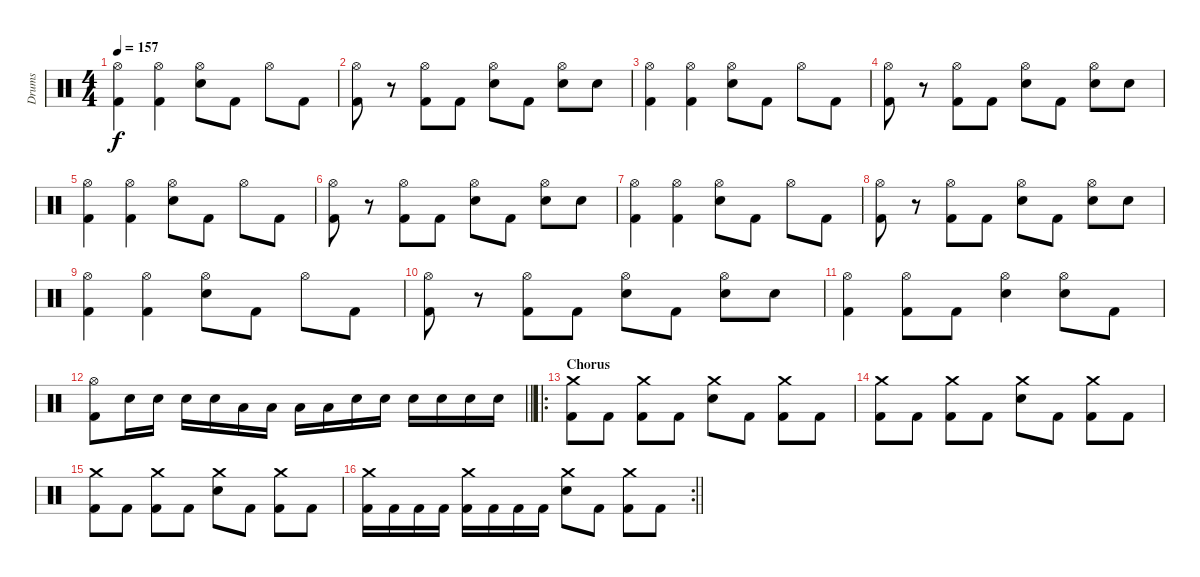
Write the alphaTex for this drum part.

\track ("Drums" "Drums") {instrument percussion}
\staff {score}
\articulation defaults
\ts (4 4)
\tempo 157
\clef neutral
\ks c
("Hi-Hat (open)" "Kick (hit) 2").4{dy f} ("Hi-Hat (open)" "Kick (hit) 2").4 ("Hi-Hat (open)" "Electric Snare (hit)").8 "Kick (hit) 2".8 "Hi-Hat (open)".8 "Kick (hit) 2".8 |
("Hi-Hat (open)" "Kick (hit) 2").8 r.8 ("Hi-Hat (open)" "Kick (hit) 2").8 "Kick (hit) 2".8 ("Hi-Hat (open)" "Electric Snare (hit)").8 "Kick (hit) 2".8 ("Hi-Hat (open)" "Electric Snare (hit)").8 "Electric Snare (hit)".8 |
("Hi-Hat (open)" "Kick (hit) 2").4 ("Hi-Hat (open)" "Kick (hit) 2").4 ("Hi-Hat (open)" "Electric Snare (hit)").8 "Kick (hit) 2".8 "Hi-Hat (open)".8 "Kick (hit) 2".8 |
("Hi-Hat (open)" "Kick (hit) 2").8 r.8 ("Hi-Hat (open)" "Kick (hit) 2").8 "Kick (hit) 2".8 ("Hi-Hat (open)" "Electric Snare (hit)").8 "Kick (hit) 2".8 ("Hi-Hat (open)" "Electric Snare (hit)").8 "Electric Snare (hit)".8 |
("Hi-Hat (open)" "Kick (hit) 2").4 ("Hi-Hat (open)" "Kick (hit) 2").4 ("Hi-Hat (open)" "Electric Snare (hit)").8 "Kick (hit) 2".8 "Hi-Hat (open)".8 "Kick (hit) 2".8 |
("Hi-Hat (open)" "Kick (hit) 2").8 r.8 ("Hi-Hat (open)" "Kick (hit) 2").8 "Kick (hit) 2".8 ("Hi-Hat (open)" "Electric Snare (hit)").8 "Kick (hit) 2".8 ("Hi-Hat (open)" "Electric Snare (hit)").8 "Electric Snare (hit)".8 |
("Hi-Hat (open)" "Kick (hit) 2").4 ("Hi-Hat (open)" "Kick (hit) 2").4 ("Hi-Hat (open)" "Electric Snare (hit)").8 "Kick (hit) 2".8 "Hi-Hat (open)".8 "Kick (hit) 2".8 |
("Hi-Hat (open)" "Kick (hit) 2").8 r.8 ("Hi-Hat (open)" "Kick (hit) 2").8 "Kick (hit) 2".8 ("Hi-Hat (open)" "Electric Snare (hit)").8 "Kick (hit) 2".8 ("Hi-Hat (open)" "Electric Snare (hit)").8 "Electric Snare (hit)".8 |
("Hi-Hat (open)" "Kick (hit) 2").4 ("Hi-Hat (open)" "Kick (hit) 2").4 ("Hi-Hat (open)" "Electric Snare (hit)").8 "Kick (hit) 2".8 "Hi-Hat (open)".8 "Kick (hit) 2".8 |
("Hi-Hat (open)" "Kick (hit) 2").8 r.8 ("Hi-Hat (open)" "Kick (hit) 2").8 "Kick (hit) 2".8 ("Hi-Hat (open)" "Electric Snare (hit)").8 "Kick (hit) 2".8 ("Hi-Hat (open)" "Electric Snare (hit)").8 "Electric Snare (hit)".8 |
("Hi-Hat (open)" "Kick (hit) 2").4 ("Hi-Hat (open)" "Kick (hit) 2").8 "Kick (hit) 2".8 ("Hi-Hat (open)" "Electric Snare (hit)").4 ("Hi-Hat (open)" "Electric Snare (hit)").8 "Kick (hit) 2".8 |
\barLineRight lightlight
("Hi-Hat (open)" "Kick (hit) 2").8 "Electric Snare (hit)".16 "Electric Snare (hit)".16 "Electric Snare (hit)".16 "Electric Snare (hit)".16 "Low Tom (hit)".16 "Low Tom (hit)".16 "Low Tom (hit)".16 "Low Tom (hit)".16 "Electric Snare (hit)".16 "Electric Snare (hit)".16 "Electric Snare (hit)".16 "Electric Snare (hit)".16 "Electric Snare (hit)".16 "Electric Snare (hit)".16 |
\ro
\section ("" "Chorus")
("Crash medium (hit)" "Kick (hit) 2").8 "Kick (hit) 2".8 ("Crash medium (hit)" "Kick (hit) 2").8 "Kick (hit) 2".8 ("Crash medium (hit)" "Electric Snare (hit)").8 "Kick (hit) 2".8 ("Crash medium (hit)" "Kick (hit) 2").8 "Kick (hit) 2".8 |
("Crash medium (hit)" "Kick (hit) 2").8 "Kick (hit) 2".8 ("Crash medium (hit)" "Kick (hit) 2").8 "Kick (hit) 2".8 ("Crash medium (hit)" "Electric Snare (hit)").8 "Kick (hit) 2".8 ("Crash medium (hit)" "Kick (hit) 2").8 "Kick (hit) 2".8 |
("Crash medium (hit)" "Kick (hit) 2").8 "Kick (hit) 2".8 ("Crash medium (hit)" "Kick (hit) 2").8 "Kick (hit) 2".8 ("Crash medium (hit)" "Electric Snare (hit)").8 "Kick (hit) 2".8 ("Crash medium (hit)" "Kick (hit) 2").8 "Kick (hit) 2".8 |
\rc 2
\barLineRight lightlight
("Crash medium (hit)" "Kick (hit) 2").16 "Kick (hit) 2".16 "Kick (hit) 2".16 "Kick (hit) 2".16 ("Crash medium (hit)" "Kick (hit) 2").16 "Kick (hit) 2".16 "Kick (hit) 2".16 "Kick (hit) 2".16 ("Crash medium (hit)" "Electric Snare (hit)").8 "Kick (hit) 2".8 ("Crash medium (hit)" "Kick (hit) 2").8 "Kick (hit) 2".8
